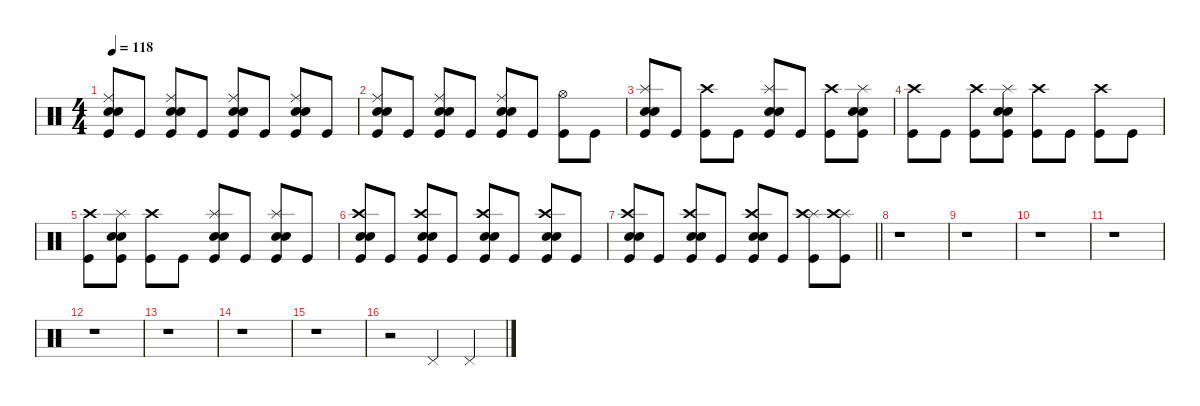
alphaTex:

\defaultSystemsLayout 4
\hideDynamics
\bracketExtendMode nobrackets
\singleTrackTrackNamePolicy hidden
\multiTrackTrackNamePolicy hidden
\firstSystemTrackNameMode fullname
\otherSystemsTrackNameOrientation horizontal
\track ("Drums" "drm.") {instrument percussion}
\staff {score}
\articulation defaults
\ts (4 4)
\tempo 118
\clef neutral
\ks c
("Ride (middle)" "Snare (hit) 2" "Snare (hit) 2" "Kick (hit)").8{dy f beam Up} "Kick (hit)".8{beam Up} ("Ride (middle)" "Snare (hit) 2" "Snare (hit) 2" "Kick (hit)").8{beam Up} "Kick (hit)".8{beam Up} ("Ride (middle)" "Snare (hit) 2" "Snare (hit) 2" "Kick (hit)").8{beam Up} "Kick (hit)".8{beam Up} ("Ride (middle)" "Snare (hit) 2" "Snare (hit) 2" "Kick (hit)").8{beam Up} "Kick (hit)".8{beam Up} |
("Ride (middle)" "Snare (hit) 2" "Snare (hit) 2" "Kick (hit)").8{beam Up} "Kick (hit)".8{beam Up} ("Ride (middle)" "Snare (hit) 2" "Snare (hit) 2" "Kick (hit)").8{beam Up} "Kick (hit)".8{beam Up} ("Ride (middle)" "Snare (hit) 2" "Snare (hit) 2" "Kick (hit)").8{beam Up} "Kick (hit)".8{beam Up} ("Hi-Hat (open)" "Kick (hit)").8{beam Down} "Kick (hit)".8{beam Down} |
("Splash (hit)" "Snare (hit) 2" "Snare (hit) 2" "Kick (hit)").8{beam Up} "Kick (hit)".8{beam Up} ("Crash high (hit)" "Kick (hit)").8{dy mf beam Down} "Kick (hit)".8{dy f beam Down} ("Splash (hit)" "Snare (hit) 2" "Snare (hit) 2" "Kick (hit)").8{beam Up} "Kick (hit)".8{beam Up} ("Crash high (hit)" "Kick (hit)").8{dy mf beam Down} ("Splash (hit)" "Snare (hit) 2" "Snare (hit) 2" "Kick (hit)").8{dy f beam Down} |
("Crash high (hit)" "Kick (hit)").8{dy mf beam Down} "Kick (hit)".8{dy f beam Down} ("Crash high (hit)" "Kick (hit)").8{dy mf beam Down} ("Splash (hit)" "Snare (hit) 2" "Snare (hit) 2" "Kick (hit)").8{dy f beam Down} ("Crash high (hit)" "Kick (hit)").8{dy mf beam Down} "Kick (hit)".8{dy f beam Down} ("Crash high (hit)" "Kick (hit)").8{dy mf beam Down} "Kick (hit)".8{dy f beam Down} |
("Crash high (hit)" "Kick (hit)").8{dy mf beam Down} ("Splash (hit)" "Snare (hit) 2" "Snare (hit) 2" "Kick (hit)").8{dy f beam Down} ("Crash high (hit)" "Kick (hit)").8{dy mf beam Down} "Kick (hit)".8{dy f beam Down} ("Splash (hit)" "Snare (hit) 2" "Snare (hit) 2" "Kick (hit)").8{beam Up} "Kick (hit)".8{beam Up} ("Splash (hit)" "Snare (hit) 2" "Snare (hit) 2" "Kick (hit)").8{beam Up} "Kick (hit)".8{beam Up} |
("Crash high (hit)" "Snare (hit) 2" "Snare (hit) 2" "Kick (hit)").8{dy mf beam Up} "Kick (hit)".8{dy f beam Up} ("Crash high (hit)" "Snare (hit) 2" "Snare (hit) 2" "Kick (hit)").8{dy mf beam Up} "Kick (hit)".8{dy f beam Up} ("Crash high (hit)" "Snare (hit) 2" "Snare (hit) 2" "Kick (hit)").8{dy mf beam Up} "Kick (hit)".8{dy f beam Up} ("Crash high (hit)" "Snare (hit) 2" "Snare (hit) 2" "Kick (hit)").8{dy mf beam Up} "Kick (hit)".8{dy f beam Up} |
\barLineRight lightlight
("Crash high (hit)" "Snare (hit) 2" "Snare (hit) 2" "Kick (hit)").8{dy mf beam Up} "Kick (hit)".8{dy f beam Up} ("Crash high (hit)" "Snare (hit) 2" "Snare (hit) 2" "Kick (hit)").8{dy mf beam Up} "Kick (hit)".8{dy f beam Up} ("Crash high (hit)" "Snare (hit) 2" "Snare (hit) 2" "Kick (hit)").8{dy mf beam Up} "Kick (hit)".8{dy f beam Up} ("Splash (hit)" "Crash high (hit)" "Kick (hit)").8{beam Down} ("Splash (hit)" "Crash high (hit)" "Kick (hit)").8{beam Down} |
r.1{beam Down} |
r.1{beam Down} |
r.1{beam Down} |
r.1{beam Down} |
r.1{beam Down} |
r.1{beam Down} |
r.1{beam Down} |
r.1{beam Down} |
r.2{beam Down} "Pedal Hi-Hat (hit)".4{beam Up} "Pedal Hi-Hat (hit)".4{beam Up}
